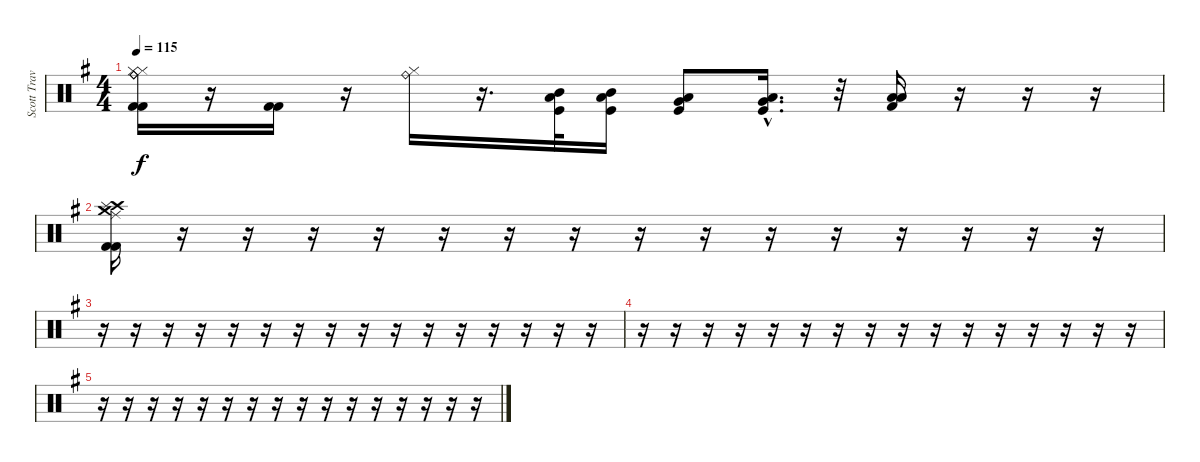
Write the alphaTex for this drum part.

\track ("Scott Travis" "Scott Trav") {instrument percussion}
\staff {score}
\articulation defaults
\ts (4 4)
\tempo 115
\clef neutral
\ks eminor
("Hi-Hat (closed)" "Hi-Hat (closed)" "Ride (bell)" "Ride (bell)" "Kick (hit) 2" "Kick (hit) 2").16{dy f} r.16 ("Kick (hit) 2" "Kick (hit) 2").16 r.16 ("Hi-Hat (closed)" "Ride (bell)").16 r.16{d} ("Mid Tom (hit)" "Low Tom (hit)" "Kick (hit)").32 ("Mid Tom (hit)" "Low Tom (hit)" "Kick (hit)").16 ("Low Tom (hit)" "Very Low Tom (hit)" "Kick (hit)").8 ("Very Low Tom (hit)"{hac} "Low Floor Tom (hit)"{hac} "Kick (hit)"{hac}).16{d} r.32 ("Low Floor Tom (hit)" "Low Floor Tom (hit)" "Kick (hit) 2").16 r.16 r.16 r.16 |
("Crash high (hit)" "Crash medium (hit)" "Splash (hit)" "Ride (middle)" "Kick (hit) 2" "Kick (hit) 2").16 r.16 r.16 r.16 r.16 r.16 r.16 r.16 r.16 r.16 r.16 r.16 r.16 r.16 r.16 r.16 |
r.16 r.16 r.16 r.16 r.16 r.16 r.16 r.16 r.16 r.16 r.16 r.16 r.16 r.16 r.16 r.16 |
r.16 r.16 r.16 r.16 r.16 r.16 r.16 r.16 r.16 r.16 r.16 r.16 r.16 r.16 r.16 r.16 |
r.16 r.16 r.16 r.16 r.16 r.16 r.16 r.16 r.16 r.16 r.16 r.16 r.16 r.16 r.16 r.16
